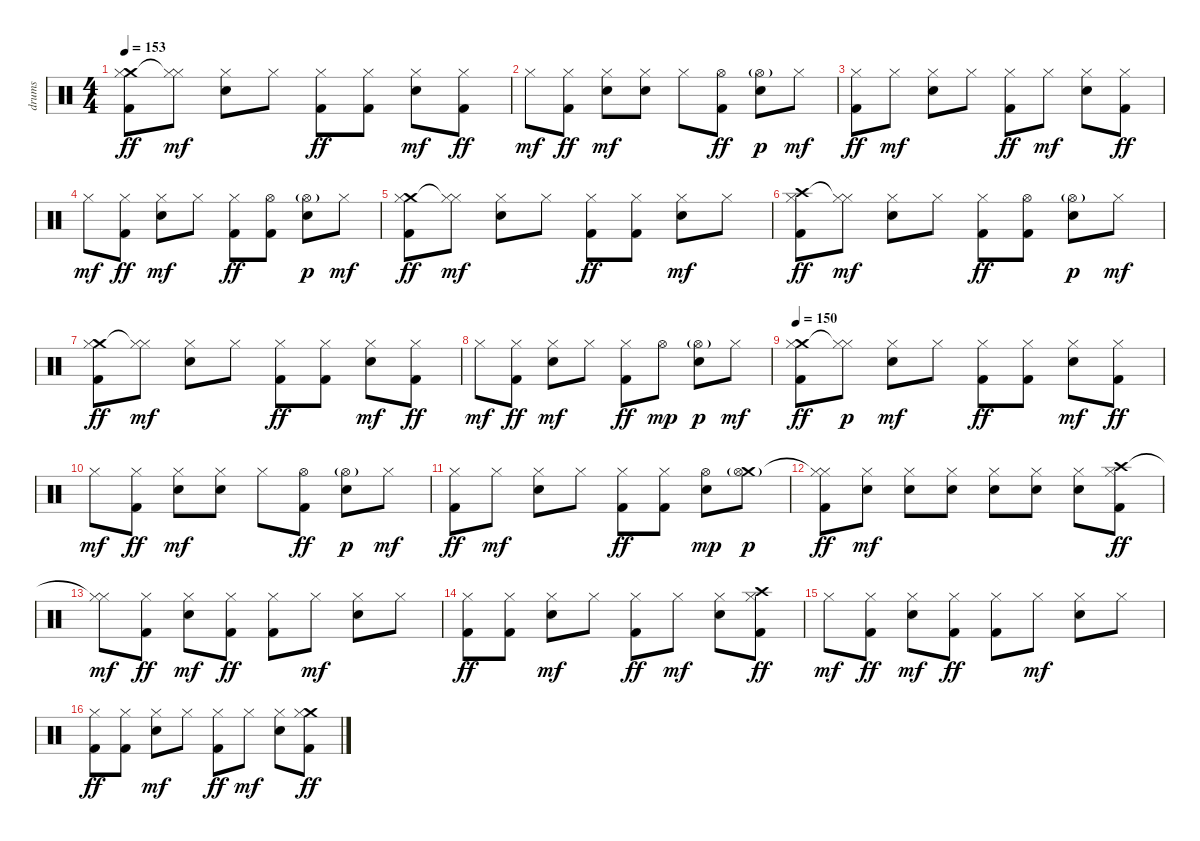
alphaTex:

\track ("drums" "drums") {instrument percussion}
\staff {score}
\articulation defaults
\ts (4 4)
\tempo 153
\clef neutral
\ks c
("Crash medium (hit)" "Hi-Hat (closed)" "Kick (hit) 2").8{dy ff} ("Hi-Hat (closed)"{t} "Hi-Hat (closed)").8{dy mf} ("Hi-Hat (closed)" "Electric Snare (hit)").8 "Hi-Hat (closed)".8 ("Hi-Hat (closed)" "Kick (hit) 2").8{dy ff} ("Hi-Hat (closed)" "Kick (hit) 2").8 ("Hi-Hat (closed)" "Electric Snare (hit)").8{dy mf} ("Hi-Hat (closed)" "Kick (hit) 2").8{dy ff} |
"Hi-Hat (closed)".8{dy mf} ("Hi-Hat (closed)" "Kick (hit) 2").8{dy ff} ("Hi-Hat (closed)" "Electric Snare (hit)").8{dy mf} ("Hi-Hat (closed)" "Electric Snare (hit)").8 "Hi-Hat (closed)".8 ("Hi-Hat (open)" "Kick (hit) 2").8{dy ff} ("Hi-Hat (open)"{g} "Electric Snare (hit)").8{dy p} "Hi-Hat (closed)".8{dy mf} |
("Hi-Hat (closed)" "Kick (hit) 2").8{dy ff} "Hi-Hat (closed)".8{dy mf} ("Hi-Hat (closed)" "Electric Snare (hit)").8 "Hi-Hat (closed)".8 ("Hi-Hat (closed)" "Kick (hit) 2").8{dy ff} "Hi-Hat (closed)".8{dy mf} ("Hi-Hat (closed)" "Electric Snare (hit)").8 ("Hi-Hat (closed)" "Kick (hit) 2").8{dy ff} |
"Hi-Hat (closed)".8{dy mf} ("Hi-Hat (closed)" "Kick (hit) 2").8{dy ff} ("Hi-Hat (closed)" "Electric Snare (hit)").8{dy mf} "Hi-Hat (closed)".8 ("Hi-Hat (closed)" "Kick (hit) 2").8{dy ff} ("Hi-Hat (open)" "Kick (hit) 2").8 ("Hi-Hat (open)"{g} "Electric Snare (hit)").8{dy p} "Hi-Hat (closed)".8{dy mf} |
("Crash medium (hit)" "Hi-Hat (closed)" "Kick (hit) 2").8{dy ff} ("Hi-Hat (closed)"{t} "Hi-Hat (closed)").8{dy mf} ("Hi-Hat (closed)" "Electric Snare (hit)").8 "Hi-Hat (closed)".8 ("Hi-Hat (closed)" "Kick (hit) 2").8{dy ff} ("Hi-Hat (closed)" "Kick (hit) 2").8 ("Hi-Hat (closed)" "Electric Snare (hit)").8{dy mf} "Hi-Hat (closed)".8 |
("Crash high (hit)" "Hi-Hat (closed)" "Kick (hit) 2").8{dy ff} ("Hi-Hat (closed)"{t} "Hi-Hat (closed)").8{dy mf} ("Hi-Hat (closed)" "Electric Snare (hit)").8 "Hi-Hat (closed)".8 ("Hi-Hat (closed)" "Kick (hit) 2").8{dy ff} ("Hi-Hat (open)" "Kick (hit) 2").8 ("Hi-Hat (open)"{g} "Electric Snare (hit)").8{dy p} "Hi-Hat (closed)".8{dy mf} |
("Crash medium (hit)" "Hi-Hat (closed)" "Kick (hit) 2").8{dy ff} ("Hi-Hat (closed)"{t} "Hi-Hat (closed)").8{dy mf} ("Hi-Hat (closed)" "Electric Snare (hit)").8 "Hi-Hat (closed)".8 ("Hi-Hat (closed)" "Kick (hit) 2").8{dy ff} ("Hi-Hat (closed)" "Kick (hit) 2").8 ("Hi-Hat (closed)" "Electric Snare (hit)").8{dy mf} ("Hi-Hat (closed)" "Kick (hit) 2").8{dy ff} |
"Hi-Hat (closed)".8{dy mf} ("Hi-Hat (closed)" "Kick (hit) 2").8{dy ff} ("Hi-Hat (closed)" "Electric Snare (hit)").8{dy mf} "Hi-Hat (closed)".8 ("Hi-Hat (closed)" "Kick (hit) 2").8{dy ff} "Hi-Hat (open)".8{dy mp} ("Hi-Hat (open)"{g} "Electric Snare (hit)").8{dy p} "Hi-Hat (closed)".8{dy mf} |
\tempo 150
("Crash medium (hit)" "Hi-Hat (closed)" "Kick (hit) 2").8{dy ff} ("Hi-Hat (closed)"{t} "Hi-Hat (closed)").8{dy p} ("Hi-Hat (closed)" "Electric Snare (hit)").8{dy mf} "Hi-Hat (closed)".8 ("Hi-Hat (closed)" "Kick (hit) 2").8{dy ff} ("Hi-Hat (closed)" "Kick (hit) 2").8 ("Hi-Hat (closed)" "Electric Snare (hit)").8{dy mf} ("Hi-Hat (closed)" "Kick (hit) 2").8{dy ff} |
"Hi-Hat (closed)".8{dy mf} ("Hi-Hat (closed)" "Kick (hit) 2").8{dy ff} ("Hi-Hat (closed)" "Electric Snare (hit)").8{dy mf} ("Hi-Hat (closed)" "Electric Snare (hit)").8 "Hi-Hat (closed)".8 ("Hi-Hat (open)" "Kick (hit) 2").8{dy ff} ("Hi-Hat (open)"{g} "Electric Snare (hit)").8{dy p} "Hi-Hat (closed)".8{dy mf} |
("Hi-Hat (closed)" "Kick (hit) 2").8{dy ff} "Hi-Hat (closed)".8{dy mf} ("Hi-Hat (closed)" "Electric Snare (hit)").8 "Hi-Hat (closed)".8 ("Hi-Hat (closed)" "Kick (hit) 2").8{dy ff} ("Hi-Hat (closed)" "Kick (hit) 2").8 ("Hi-Hat (open)" "Electric Snare (hit)").8{dy mp} ("Crash medium (hit)" "Hi-Hat (open)"{g}).8{dy p} |
("Hi-Hat (closed)"{t} "Hi-Hat (closed)" "Kick (hit) 2").8{dy ff} ("Hi-Hat (closed)" "Electric Snare (hit)").8{dy mf} ("Hi-Hat (closed)" "Electric Snare (hit)").8 ("Hi-Hat (closed)" "Electric Snare (hit)").8 ("Hi-Hat (closed)" "Electric Snare (hit)").8 ("Hi-Hat (closed)" "Electric Snare (hit)").8 ("Hi-Hat (closed)" "Electric Snare (hit)").8 ("Crash high (hit)" "Hi-Hat (closed)" "Kick (hit) 2").8{dy ff} |
("Hi-Hat (closed)"{t} "Hi-Hat (closed)").8{dy mf} ("Hi-Hat (closed)" "Kick (hit) 2").8{dy ff} ("Hi-Hat (closed)" "Electric Snare (hit)").8{dy mf} ("Hi-Hat (closed)" "Kick (hit) 2").8{dy ff} ("Hi-Hat (closed)" "Kick (hit) 2").8 "Hi-Hat (closed)".8{dy mf} ("Hi-Hat (closed)" "Electric Snare (hit)").8 "Hi-Hat (closed)".8 |
("Hi-Hat (closed)" "Kick (hit) 2").8{dy ff} ("Hi-Hat (closed)" "Kick (hit) 2").8 ("Hi-Hat (closed)" "Electric Snare (hit)").8{dy mf} "Hi-Hat (closed)".8 ("Hi-Hat (closed)" "Kick (hit) 2").8{dy ff} "Hi-Hat (closed)".8{dy mf} ("Hi-Hat (closed)" "Electric Snare (hit)").8 ("Crash high (hit)" "Hi-Hat (closed)" "Kick (hit) 2").8{dy ff} |
"Hi-Hat (closed)".8{dy mf} ("Hi-Hat (closed)" "Kick (hit) 2").8{dy ff} ("Hi-Hat (closed)" "Electric Snare (hit)").8{dy mf} ("Hi-Hat (closed)" "Kick (hit) 2").8{dy ff} ("Hi-Hat (closed)" "Kick (hit) 2").8 "Hi-Hat (closed)".8{dy mf} ("Hi-Hat (closed)" "Electric Snare (hit)").8 "Hi-Hat (closed)".8 |
("Hi-Hat (closed)" "Kick (hit) 2").8{dy ff} ("Hi-Hat (closed)" "Kick (hit) 2").8 ("Hi-Hat (closed)" "Electric Snare (hit)").8{dy mf} "Hi-Hat (closed)".8 ("Hi-Hat (closed)" "Kick (hit) 2").8{dy ff} "Hi-Hat (closed)".8{dy mf} ("Hi-Hat (closed)" "Electric Snare (hit)").8 ("Crash medium (hit)" "Hi-Hat (closed)" "Kick (hit) 2").8{dy ff}
